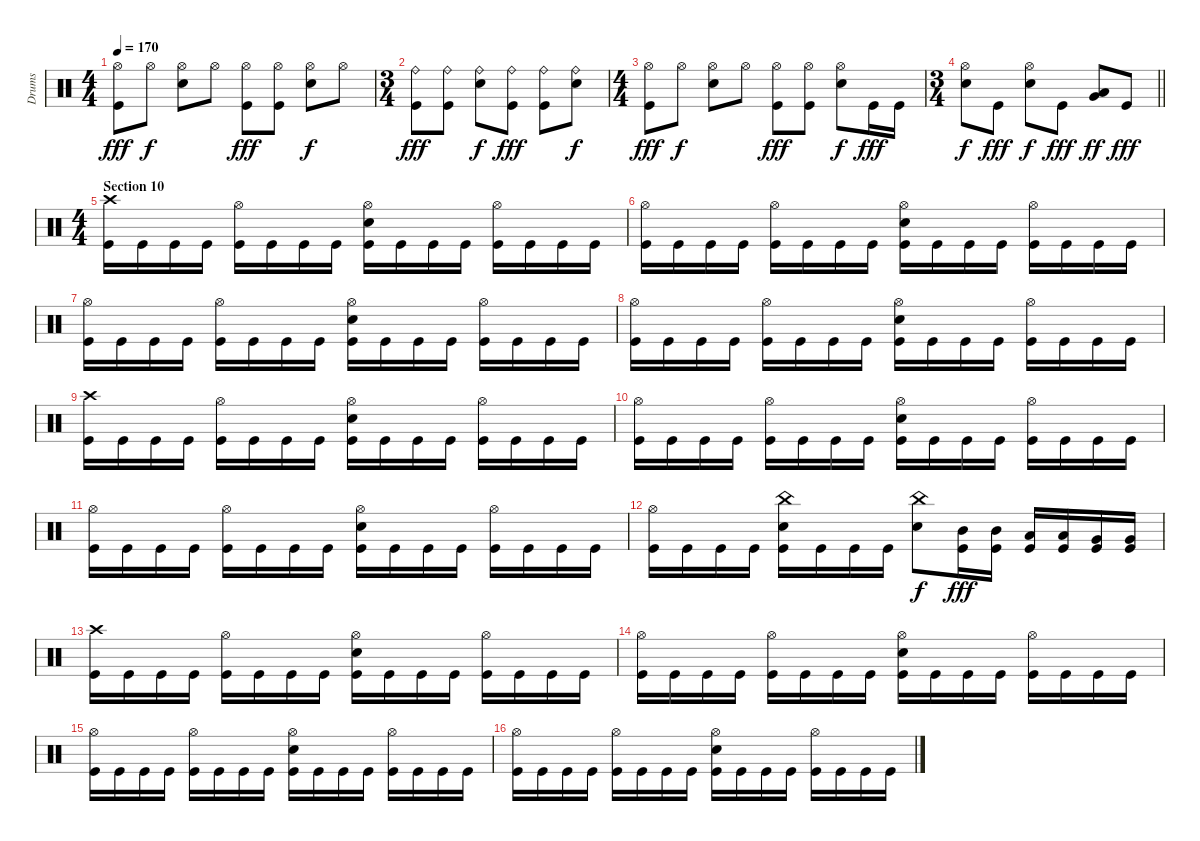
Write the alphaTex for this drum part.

\track ("Drums" "Drums") {instrument percussion}
\staff {score}
\articulation defaults
\ts (4 4)
\tempo 170
\clef neutral
\ks c
("Hi-Hat (open)" "Kick (hit)").8{dy fff} "Hi-Hat (open)".8{dy f} ("Hi-Hat (open)" "Snare (hit) 2").8 "Hi-Hat (open)".8 ("Hi-Hat (open)" "Kick (hit)").8{dy fff} ("Hi-Hat (open)" "Kick (hit)").8 ("Hi-Hat (open)" "Snare (hit) 2").8{dy f} "Hi-Hat (open)".8 |
\ts (3 4)
("Ride (bell)" "Kick (hit)").8{dy fff} ("Ride (bell)" "Kick (hit)").8 ("Ride (bell)" "Snare (hit) 2").8{dy f} ("Ride (bell)" "Kick (hit)").8{dy fff} ("Ride (bell)" "Kick (hit)").8 ("Ride (bell)" "Snare (hit) 2").8{dy f} |
\ts (4 4)
("Hi-Hat (open)" "Kick (hit)").8{dy fff} "Hi-Hat (open)".8{dy f} ("Hi-Hat (open)" "Snare (hit) 2").8 "Hi-Hat (open)".8 ("Hi-Hat (open)" "Kick (hit)").8{dy fff} ("Hi-Hat (open)" "Kick (hit)").8 ("Hi-Hat (open)" "Snare (hit) 2").8{dy f} "Kick (hit)".16{dy fff} "Kick (hit)".16 |
\ts (3 4)
\barLineRight lightlight
("Hi-Hat (open)" "Snare (hit) 2").8{dy f} "Kick (hit)".8{dy fff} ("Hi-Hat (open)" "Snare (hit) 2").8{dy f} "Kick (hit)".8{dy fff} ("Low Tom (hit)" "Very Low Tom (hit)").8{dy ff} "Kick (hit)".8{dy fff} |
\ts (4 4)
\section ("" "Section 10")
("Crash high (hit)" "Kick (hit)").16 "Kick (hit)".16 "Kick (hit)".16 "Kick (hit)".16 ("Hi-Hat (open)" "Kick (hit)").16 "Kick (hit)".16 "Kick (hit)".16 "Kick (hit)".16 ("Hi-Hat (open)" "Snare (hit) 2" "Kick (hit)").16 "Kick (hit)".16 "Kick (hit)".16 "Kick (hit)".16 ("Hi-Hat (open)" "Kick (hit)").16 "Kick (hit)".16 "Kick (hit)".16 "Kick (hit)".16 |
("Hi-Hat (open)" "Kick (hit)").16 "Kick (hit)".16 "Kick (hit)".16 "Kick (hit)".16 ("Hi-Hat (open)" "Kick (hit)").16 "Kick (hit)".16 "Kick (hit)".16 "Kick (hit)".16 ("Hi-Hat (open)" "Snare (hit) 2" "Kick (hit)").16 "Kick (hit)".16 "Kick (hit)".16 "Kick (hit)".16 ("Hi-Hat (open)" "Kick (hit)").16 "Kick (hit)".16 "Kick (hit)".16 "Kick (hit)".16 |
("Hi-Hat (open)" "Kick (hit)").16 "Kick (hit)".16 "Kick (hit)".16 "Kick (hit)".16 ("Hi-Hat (open)" "Kick (hit)").16 "Kick (hit)".16 "Kick (hit)".16 "Kick (hit)".16 ("Hi-Hat (open)" "Snare (hit) 2" "Kick (hit)").16 "Kick (hit)".16 "Kick (hit)".16 "Kick (hit)".16 ("Hi-Hat (open)" "Kick (hit)").16 "Kick (hit)".16 "Kick (hit)".16 "Kick (hit)".16 |
("Hi-Hat (open)" "Kick (hit)").16 "Kick (hit)".16 "Kick (hit)".16 "Kick (hit)".16 ("Hi-Hat (open)" "Kick (hit)").16 "Kick (hit)".16 "Kick (hit)".16 "Kick (hit)".16 ("Hi-Hat (open)" "Snare (hit) 2" "Kick (hit)").16 "Kick (hit)".16 "Kick (hit)".16 "Kick (hit)".16 ("Hi-Hat (open)" "Kick (hit)").16 "Kick (hit)".16 "Kick (hit)".16 "Kick (hit)".16 |
("Crash high (hit)" "Kick (hit)").16 "Kick (hit)".16 "Kick (hit)".16 "Kick (hit)".16 ("Hi-Hat (open)" "Kick (hit)").16 "Kick (hit)".16 "Kick (hit)".16 "Kick (hit)".16 ("Hi-Hat (open)" "Snare (hit) 2" "Kick (hit)").16 "Kick (hit)".16 "Kick (hit)".16 "Kick (hit)".16 ("Hi-Hat (open)" "Kick (hit)").16 "Kick (hit)".16 "Kick (hit)".16 "Kick (hit)".16 |
("Hi-Hat (open)" "Kick (hit)").16 "Kick (hit)".16 "Kick (hit)".16 "Kick (hit)".16 ("Hi-Hat (open)" "Kick (hit)").16 "Kick (hit)".16 "Kick (hit)".16 "Kick (hit)".16 ("Hi-Hat (open)" "Snare (hit) 2" "Kick (hit)").16 "Kick (hit)".16 "Kick (hit)".16 "Kick (hit)".16 ("Hi-Hat (open)" "Kick (hit)").16 "Kick (hit)".16 "Kick (hit)".16 "Kick (hit)".16 |
("Hi-Hat (open)" "Kick (hit)").16 "Kick (hit)".16 "Kick (hit)".16 "Kick (hit)".16 ("Hi-Hat (open)" "Kick (hit)").16 "Kick (hit)".16 "Kick (hit)".16 "Kick (hit)".16 ("Hi-Hat (open)" "Snare (hit) 2" "Kick (hit)").16 "Kick (hit)".16 "Kick (hit)".16 "Kick (hit)".16 ("Hi-Hat (open)" "Kick (hit)").16 "Kick (hit)".16 "Kick (hit)".16 "Kick (hit)".16 |
("Hi-Hat (open)" "Kick (hit)").16 "Kick (hit)".16 "Kick (hit)".16 "Kick (hit)".16 ("China (hit)" "Snare (hit) 2" "Kick (hit)").16 "Kick (hit)".16 "Kick (hit)".16 "Kick (hit)".16 ("China (hit)" "Snare (hit) 2").8{dy f} ("Mid Tom (hit)" "Kick (hit)").16{dy fff} ("Mid Tom (hit)" "Kick (hit)").16 ("Low Tom (hit)" "Kick (hit)").16 ("Low Tom (hit)" "Kick (hit)").16 ("Very Low Tom (hit)" "Kick (hit)").16 ("Very Low Tom (hit)" "Kick (hit)").16 |
("Crash high (hit)" "Kick (hit)").16 "Kick (hit)".16 "Kick (hit)".16 "Kick (hit)".16 ("Hi-Hat (open)" "Kick (hit)").16 "Kick (hit)".16 "Kick (hit)".16 "Kick (hit)".16 ("Hi-Hat (open)" "Snare (hit) 2" "Kick (hit)").16 "Kick (hit)".16 "Kick (hit)".16 "Kick (hit)".16 ("Hi-Hat (open)" "Kick (hit)").16 "Kick (hit)".16 "Kick (hit)".16 "Kick (hit)".16 |
("Hi-Hat (open)" "Kick (hit)").16 "Kick (hit)".16 "Kick (hit)".16 "Kick (hit)".16 ("Hi-Hat (open)" "Kick (hit)").16 "Kick (hit)".16 "Kick (hit)".16 "Kick (hit)".16 ("Hi-Hat (open)" "Snare (hit) 2" "Kick (hit)").16 "Kick (hit)".16 "Kick (hit)".16 "Kick (hit)".16 ("Hi-Hat (open)" "Kick (hit)").16 "Kick (hit)".16 "Kick (hit)".16 "Kick (hit)".16 |
("Hi-Hat (open)" "Kick (hit)").16 "Kick (hit)".16 "Kick (hit)".16 "Kick (hit)".16 ("Hi-Hat (open)" "Kick (hit)").16 "Kick (hit)".16 "Kick (hit)".16 "Kick (hit)".16 ("Hi-Hat (open)" "Snare (hit) 2" "Kick (hit)").16 "Kick (hit)".16 "Kick (hit)".16 "Kick (hit)".16 ("Hi-Hat (open)" "Kick (hit)").16 "Kick (hit)".16 "Kick (hit)".16 "Kick (hit)".16 |
("Hi-Hat (open)" "Kick (hit)").16 "Kick (hit)".16 "Kick (hit)".16 "Kick (hit)".16 ("Hi-Hat (open)" "Kick (hit)").16 "Kick (hit)".16 "Kick (hit)".16 "Kick (hit)".16 ("Hi-Hat (open)" "Snare (hit) 2" "Kick (hit)").16 "Kick (hit)".16 "Kick (hit)".16 "Kick (hit)".16 ("Hi-Hat (open)" "Kick (hit)").16 "Kick (hit)".16 "Kick (hit)".16 "Kick (hit)".16
